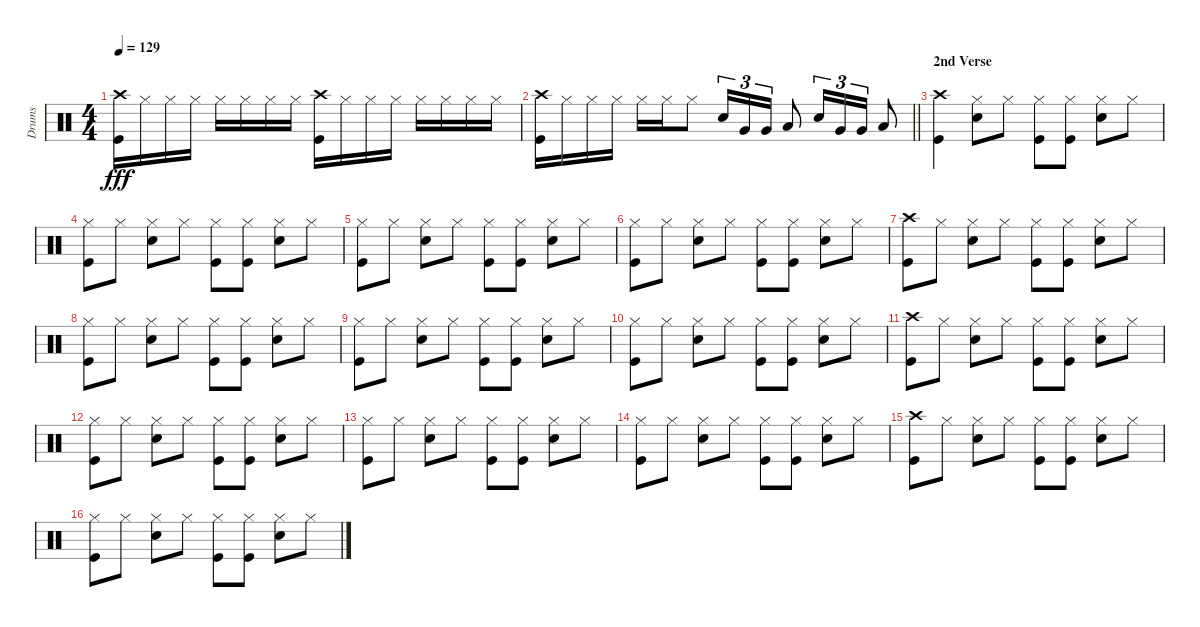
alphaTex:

\track ("Drums" "Drums") {instrument percussion}
\staff {score}
\articulation defaults
\ts (4 4)
\tempo 129
\clef neutral
\ks c
("Crash high (hit)" "Kick (hit)").16{dy fff} "Hi-Hat (closed)".16 "Hi-Hat (closed)".16 "Hi-Hat (closed)".16 "Hi-Hat (closed)".16 "Hi-Hat (closed)".16 "Hi-Hat (closed)".16 "Hi-Hat (closed)".16 ("Crash high (hit)" "Kick (hit)").16 "Hi-Hat (closed)".16 "Hi-Hat (closed)".16 "Hi-Hat (closed)".16 "Hi-Hat (closed)".16 "Hi-Hat (closed)".16 "Hi-Hat (closed)".16 "Hi-Hat (closed)".16 |
\barLineRight lightlight
("Crash high (hit)" "Kick (hit)").16 "Hi-Hat (closed)".16 "Hi-Hat (closed)".16 "Hi-Hat (closed)".16 "Hi-Hat (closed)".16 "Hi-Hat (closed)".16 "Hi-Hat (closed)".8 "Snare (hit) 2".16{tu (3 2)} "Very Low Tom (hit)".16{tu (3 2)} "Very Low Tom (hit)".16{tu (3 2)} "Low Floor Tom (hit)".8 "Snare (hit) 2".16{tu (3 2)} "Very Low Tom (hit)".16{tu (3 2)} "Very Low Tom (hit)".16{tu (3 2)} "Low Floor Tom (hit)".8 |
\section ("" "2nd Verse")
("Crash high (hit)" "Kick (hit)").4 ("Hi-Hat (closed)" "Snare (hit) 2").8 "Hi-Hat (closed)".8 ("Hi-Hat (closed)" "Kick (hit)").8 ("Hi-Hat (closed)" "Kick (hit)").8 ("Hi-Hat (closed)" "Snare (hit) 2").8 "Hi-Hat (closed)".8 |
("Hi-Hat (closed)" "Kick (hit)").8 "Hi-Hat (closed)".8 ("Hi-Hat (closed)" "Snare (hit) 2").8 "Hi-Hat (closed)".8 ("Hi-Hat (closed)" "Kick (hit)").8 ("Hi-Hat (closed)" "Kick (hit)").8 ("Hi-Hat (closed)" "Snare (hit) 2").8 "Hi-Hat (closed)".8 |
("Hi-Hat (closed)" "Kick (hit)").8 "Hi-Hat (closed)".8 ("Hi-Hat (closed)" "Snare (hit) 2").8 "Hi-Hat (closed)".8 ("Hi-Hat (closed)" "Kick (hit)").8 ("Hi-Hat (closed)" "Kick (hit)").8 ("Hi-Hat (closed)" "Snare (hit) 2").8 "Hi-Hat (closed)".8 |
("Hi-Hat (closed)" "Kick (hit)").8 "Hi-Hat (closed)".8 ("Hi-Hat (closed)" "Snare (hit) 2").8 "Hi-Hat (closed)".8 ("Hi-Hat (closed)" "Kick (hit)").8 ("Hi-Hat (closed)" "Kick (hit)").8 ("Hi-Hat (closed)" "Snare (hit) 2").8 "Hi-Hat (closed)".8 |
("Crash high (hit)" "Kick (hit)").8 "Hi-Hat (closed)".8 ("Hi-Hat (closed)" "Snare (hit) 2").8 "Hi-Hat (closed)".8 ("Hi-Hat (closed)" "Kick (hit)").8 ("Hi-Hat (closed)" "Kick (hit)").8 ("Hi-Hat (closed)" "Snare (hit) 2").8 "Hi-Hat (closed)".8 |
("Hi-Hat (closed)" "Kick (hit)").8 "Hi-Hat (closed)".8 ("Hi-Hat (closed)" "Snare (hit) 2").8 "Hi-Hat (closed)".8 ("Hi-Hat (closed)" "Kick (hit)").8 ("Hi-Hat (closed)" "Kick (hit)").8 ("Hi-Hat (closed)" "Snare (hit) 2").8 "Hi-Hat (closed)".8 |
("Hi-Hat (closed)" "Kick (hit)").8 "Hi-Hat (closed)".8 ("Hi-Hat (closed)" "Snare (hit) 2").8 "Hi-Hat (closed)".8 ("Hi-Hat (closed)" "Kick (hit)").8 ("Hi-Hat (closed)" "Kick (hit)").8 ("Hi-Hat (closed)" "Snare (hit) 2").8 "Hi-Hat (closed)".8 |
("Hi-Hat (closed)" "Kick (hit)").8 "Hi-Hat (closed)".8 ("Hi-Hat (closed)" "Snare (hit) 2").8 "Hi-Hat (closed)".8 ("Hi-Hat (closed)" "Kick (hit)").8 ("Hi-Hat (closed)" "Kick (hit)").8 ("Hi-Hat (closed)" "Snare (hit) 2").8 "Hi-Hat (closed)".8 |
("Crash high (hit)" "Kick (hit)").8 "Hi-Hat (closed)".8 ("Hi-Hat (closed)" "Snare (hit) 2").8 "Hi-Hat (closed)".8 ("Hi-Hat (closed)" "Kick (hit)").8 ("Hi-Hat (closed)" "Kick (hit)").8 ("Hi-Hat (closed)" "Snare (hit) 2").8 "Hi-Hat (closed)".8 |
("Hi-Hat (closed)" "Kick (hit)").8 "Hi-Hat (closed)".8 ("Hi-Hat (closed)" "Snare (hit) 2").8 "Hi-Hat (closed)".8 ("Hi-Hat (closed)" "Kick (hit)").8 ("Hi-Hat (closed)" "Kick (hit)").8 ("Hi-Hat (closed)" "Snare (hit) 2").8 "Hi-Hat (closed)".8 |
("Hi-Hat (closed)" "Kick (hit)").8 "Hi-Hat (closed)".8 ("Hi-Hat (closed)" "Snare (hit) 2").8 "Hi-Hat (closed)".8 ("Hi-Hat (closed)" "Kick (hit)").8 ("Hi-Hat (closed)" "Kick (hit)").8 ("Hi-Hat (closed)" "Snare (hit) 2").8 "Hi-Hat (closed)".8 |
("Hi-Hat (closed)" "Kick (hit)").8 "Hi-Hat (closed)".8 ("Hi-Hat (closed)" "Snare (hit) 2").8 "Hi-Hat (closed)".8 ("Hi-Hat (closed)" "Kick (hit)").8 ("Hi-Hat (closed)" "Kick (hit)").8 ("Hi-Hat (closed)" "Snare (hit) 2").8 "Hi-Hat (closed)".8 |
("Crash high (hit)" "Kick (hit)").8 "Hi-Hat (closed)".8 ("Hi-Hat (closed)" "Snare (hit) 2").8 "Hi-Hat (closed)".8 ("Hi-Hat (closed)" "Kick (hit)").8 ("Hi-Hat (closed)" "Kick (hit)").8 ("Hi-Hat (closed)" "Snare (hit) 2").8 "Hi-Hat (closed)".8 |
("Hi-Hat (closed)" "Kick (hit)").8 "Hi-Hat (closed)".8 ("Hi-Hat (closed)" "Snare (hit) 2").8 "Hi-Hat (closed)".8 ("Hi-Hat (closed)" "Kick (hit)").8 ("Hi-Hat (closed)" "Kick (hit)").8 ("Hi-Hat (closed)" "Snare (hit) 2").8 "Hi-Hat (closed)".8
